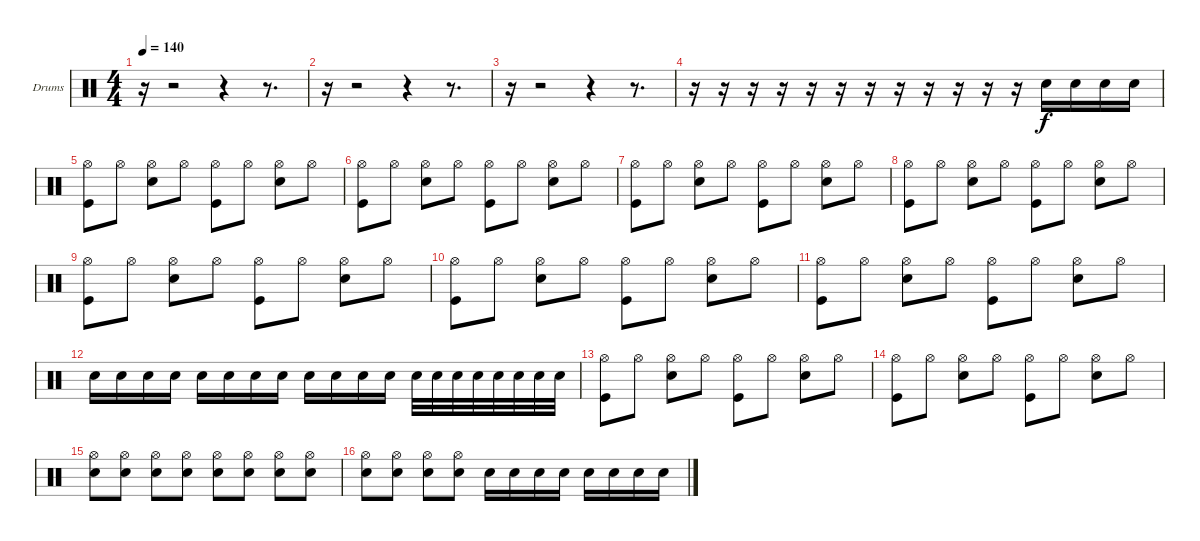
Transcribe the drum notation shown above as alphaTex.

\bracketExtendMode groupsimilarinstruments
\firstSystemTrackNameOrientation horizontal
\otherSystemsTrackNameOrientation horizontal
\track ("Drumkit" "Drums") {instrument percussion}
\staff {score}
\articulation defaults
\ts (4 4)
\tempo 140
\clef neutral
\scale
0.333333
\ks c
r.16{dy f} r.2 r.4 r.8{d} |
\scale
0.333333 r.16 r.2 r.4 r.8{d} |
\scale
0.333333 r.16 r.2 r.4 r.8{d} |
\scale
0.333333 r.16 r.16 r.16 r.16 r.16 r.16 r.16 r.16 r.16 r.16 r.16 r.16 "Snare (hit) 2".16 "Snare (hit) 2".16 "Snare (hit) 2".16 "Snare (hit) 2".16 |
\scale
0.333333 ("Hi-Hat (open)" "Kick (hit)").8 "Hi-Hat (open)".8 ("Hi-Hat (open)" "Snare (hit) 2").8 "Hi-Hat (open)".8 ("Hi-Hat (open)" "Kick (hit)").8 "Hi-Hat (open)".8 ("Hi-Hat (open)" "Snare (hit) 2").8 "Hi-Hat (open)".8 |
\scale
0.333333 ("Hi-Hat (open)" "Kick (hit)").8 "Hi-Hat (open)".8 ("Hi-Hat (open)" "Snare (hit) 2").8 "Hi-Hat (open)".8 ("Hi-Hat (open)" "Kick (hit)").8 "Hi-Hat (open)".8 ("Hi-Hat (open)" "Snare (hit) 2").8 "Hi-Hat (open)".8 |
\scale
0.333333 ("Hi-Hat (open)" "Kick (hit)").8 "Hi-Hat (open)".8 ("Hi-Hat (open)" "Snare (hit) 2").8 "Hi-Hat (open)".8 ("Hi-Hat (open)" "Kick (hit)").8 "Hi-Hat (open)".8 ("Hi-Hat (open)" "Snare (hit) 2").8 "Hi-Hat (open)".8 |
\scale
0.333333 ("Hi-Hat (open)" "Kick (hit)").8 "Hi-Hat (open)".8 ("Hi-Hat (open)" "Snare (hit) 2").8 "Hi-Hat (open)".8 ("Hi-Hat (open)" "Kick (hit)").8 "Hi-Hat (open)".8 ("Hi-Hat (open)" "Snare (hit) 2").8 "Hi-Hat (open)".8 |
\scale
0.333333 ("Hi-Hat (open)" "Kick (hit)").8 "Hi-Hat (open)".8 ("Hi-Hat (open)" "Snare (hit) 2").8 "Hi-Hat (open)".8 ("Hi-Hat (open)" "Kick (hit)").8 "Hi-Hat (open)".8 ("Hi-Hat (open)" "Snare (hit) 2").8 "Hi-Hat (open)".8 |
\scale
0.333333 ("Hi-Hat (open)" "Kick (hit)").8 "Hi-Hat (open)".8 ("Hi-Hat (open)" "Snare (hit) 2").8 "Hi-Hat (open)".8 ("Hi-Hat (open)" "Kick (hit)").8 "Hi-Hat (open)".8 ("Hi-Hat (open)" "Snare (hit) 2").8 "Hi-Hat (open)".8 |
\scale
0.333333 ("Hi-Hat (open)" "Kick (hit)").8 "Hi-Hat (open)".8 ("Hi-Hat (open)" "Snare (hit) 2").8 "Hi-Hat (open)".8 ("Hi-Hat (open)" "Kick (hit)").8 "Hi-Hat (open)".8 ("Hi-Hat (open)" "Snare (hit) 2").8 "Hi-Hat (open)".8 |
\scale
0.333333 "Snare (hit) 2".16 "Snare (hit) 2".16 "Snare (hit) 2".16 "Snare (hit) 2".16 "Snare (hit) 2".16 "Snare (hit) 2".16 "Snare (hit) 2".16 "Snare (hit) 2".16 "Snare (hit) 2".16 "Snare (hit) 2".16 "Snare (hit) 2".16 "Snare (hit) 2".16 "Snare (hit) 2".32 "Snare (hit) 2".32 "Snare (hit) 2".32 "Snare (hit) 2".32 "Snare (hit) 2".32 "Snare (hit) 2".32 "Snare (hit) 2".32 "Snare (hit) 2".32 |
\scale
0.333333 ("Hi-Hat (open)" "Kick (hit)").8 "Hi-Hat (open)".8 ("Hi-Hat (open)" "Snare (hit) 2").8 "Hi-Hat (open)".8 ("Hi-Hat (open)" "Kick (hit)").8 "Hi-Hat (open)".8 ("Hi-Hat (open)" "Snare (hit) 2").8 "Hi-Hat (open)".8 |
\scale
0.333333 ("Hi-Hat (open)" "Kick (hit)").8 "Hi-Hat (open)".8 ("Hi-Hat (open)" "Snare (hit) 2").8 "Hi-Hat (open)".8 ("Hi-Hat (open)" "Kick (hit)").8 "Hi-Hat (open)".8 ("Hi-Hat (open)" "Snare (hit) 2").8 "Hi-Hat (open)".8 |
\scale
0.333333 ("Hi-Hat (open)" "Snare (hit) 2").8 ("Hi-Hat (open)" "Snare (hit) 2").8 ("Hi-Hat (open)" "Snare (hit) 2").8 ("Hi-Hat (open)" "Snare (hit) 2").8 ("Hi-Hat (open)" "Snare (hit) 2").8 ("Hi-Hat (open)" "Snare (hit) 2").8 ("Hi-Hat (open)" "Snare (hit) 2").8 ("Hi-Hat (open)" "Snare (hit) 2").8 |
\scale
0.333333 ("Hi-Hat (open)" "Snare (hit) 2").8 ("Hi-Hat (open)" "Snare (hit) 2").8 ("Hi-Hat (open)" "Snare (hit) 2").8 ("Hi-Hat (open)" "Snare (hit) 2").8 "Snare (hit) 2".16 "Snare (hit) 2".16 "Snare (hit) 2".16 "Snare (hit) 2".16 "Snare (hit) 2".16 "Snare (hit) 2".16 "Snare (hit) 2".16 "Snare (hit) 2".16
